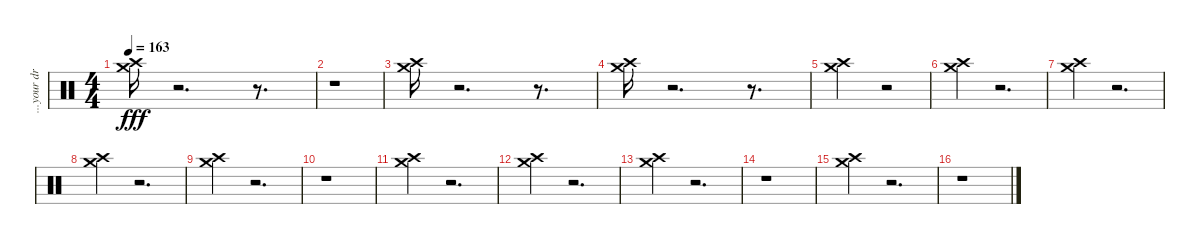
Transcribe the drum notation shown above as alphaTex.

\track ("...your drums (read: cymbals)..." "...your dr") {instrument percussion}
\staff {score}
\articulation defaults
\ts (4 4)
\tempo 163
\clef neutral
\ks c
("Crash high (hit)" "Crash medium (hit)").16{dy fff} r.2{d} r.8{d} |
r.1 |
("Crash high (hit)" "Crash medium (hit)").16 r.2{d} r.8{d} |
("Crash high (hit)" "Crash medium (hit)").16 r.2{d} r.8{d} |
("Crash high (hit)" "Crash medium (hit)").2 r.2 |
("Crash high (hit)" "Crash medium (hit)").4 r.2{d} |
("Crash high (hit)" "Crash medium (hit)").4 r.2{d} |
("Crash high (hit)" "Crash medium (hit)").4 r.2{d} |
("Crash high (hit)" "Crash medium (hit)").4 r.2{d} |
r.1 |
("Crash high (hit)" "Crash medium (hit)").4 r.2{d} |
("Crash high (hit)" "Crash medium (hit)").4 r.2{d} |
("Crash high (hit)" "Crash medium (hit)").4 r.2{d} |
r.1 |
("Crash high (hit)" "Crash medium (hit)").4 r.2{d} |
r.1
